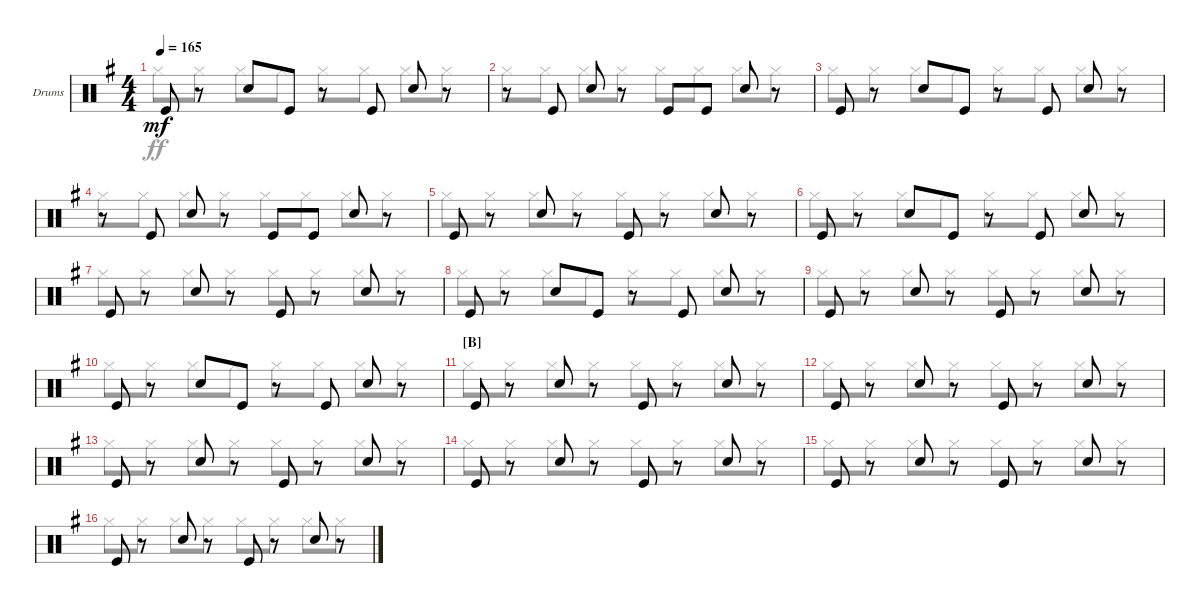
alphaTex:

\defaultSystemsLayout 4
\bracketExtendMode groupsimilarinstruments
\firstSystemTrackNameOrientation horizontal
\otherSystemsTrackNameOrientation horizontal
\track ("Fabrizio Moretti" "Drums") {instrument percussion}
\staff {score}
\articulation defaults
\voice
\ts (4 4)
\tempo 165
\clef neutral
\ks g "Kick (hit)".8{dy mf}
r.8 "Snare (hit) 2".8 "Kick (hit)".8 r.8 "Kick (hit)".8 "Snare (hit) 2".8 r.8 |
r.8 "Kick (hit)".8 "Snare (hit) 2".8 r.8 "Kick (hit)".8 "Kick (hit)".8 "Snare (hit) 2".8 r.8 |
"Kick (hit)".8 r.8 "Snare (hit) 2".8 "Kick (hit)".8 r.8 "Kick (hit)".8 "Snare (hit) 2".8 r.8 |
r.8 "Kick (hit)".8 "Snare (hit) 2".8 r.8 "Kick (hit)".8 "Kick (hit)".8 "Snare (hit) 2".8 r.8 |
"Kick (hit)".8 r.8 "Snare (hit) 2".8 r.8 "Kick (hit)".8 r.8 "Snare (hit) 2".8 r.8 |
"Kick (hit)".8 r.8 "Snare (hit) 2".8 "Kick (hit)".8 r.8 "Kick (hit)".8 "Snare (hit) 2".8 r.8 |
"Kick (hit)".8 r.8 "Snare (hit) 2".8 r.8 "Kick (hit)".8 r.8 "Snare (hit) 2".8 r.8 |
"Kick (hit)".8 r.8 "Snare (hit) 2".8 "Kick (hit)".8 r.8 "Kick (hit)".8 "Snare (hit) 2".8 r.8 |
"Kick (hit)".8 r.8 "Snare (hit) 2".8 r.8 "Kick (hit)".8 r.8 "Snare (hit) 2".8 r.8 |
"Kick (hit)".8 r.8 "Snare (hit) 2".8 "Kick (hit)".8 r.8 "Kick (hit)".8 "Snare (hit) 2".8 r.8 |
\section ("B" "")
"Kick (hit)".8 r.8 "Snare (hit) 2".8 r.8 "Kick (hit)".8 r.8 "Snare (hit) 2".8 r.8 |
"Kick (hit)".8 r.8 "Snare (hit) 2".8 r.8 "Kick (hit)".8 r.8 "Snare (hit) 2".8 r.8 |
"Kick (hit)".8 r.8 "Snare (hit) 2".8 r.8 "Kick (hit)".8 r.8 "Snare (hit) 2".8 r.8 |
"Kick (hit)".8 r.8 "Snare (hit) 2".8 r.8 "Kick (hit)".8 r.8 "Snare (hit) 2".8 r.8 |
"Kick (hit)".8 r.8 "Snare (hit) 2".8 r.8 "Kick (hit)".8 r.8 "Snare (hit) 2".8 r.8 |
"Kick (hit)".8 r.8 "Snare (hit) 2".8 r.8 "Kick (hit)".8 r.8 "Snare (hit) 2".8 r.8
\voice
\clef neutral
\ottava regular
\simile none
\ks g "Hi-Hat (closed)".8{dy ff} "Hi-Hat (closed)".8 "Hi-Hat (closed)".8 "Hi-Hat (closed)".8 "Hi-Hat (closed)".8 "Hi-Hat (closed)".8 "Hi-Hat (closed)".8 "Hi-Hat (closed)".8
|
"Hi-Hat (closed)".8 "Hi-Hat (closed)".8 "Hi-Hat (closed)".8 "Hi-Hat (closed)".8 "Hi-Hat (closed)".8 "Hi-Hat (closed)".8 "Hi-Hat (closed)".8 "Hi-Hat (closed)".8 |
"Hi-Hat (closed)".8 "Hi-Hat (closed)".8 "Hi-Hat (closed)".8 "Hi-Hat (closed)".8 "Hi-Hat (closed)".8 "Hi-Hat (closed)".8 "Hi-Hat (closed)".8 "Hi-Hat (closed)".8 |
"Hi-Hat (closed)".8 "Hi-Hat (closed)".8 "Hi-Hat (closed)".8 "Hi-Hat (closed)".8 "Hi-Hat (closed)".8 "Hi-Hat (closed)".8 "Hi-Hat (closed)".8 "Hi-Hat (closed)".8 |
"Hi-Hat (closed)".8 "Hi-Hat (closed)".8 "Hi-Hat (closed)".8 "Hi-Hat (closed)".8 "Hi-Hat (closed)".8 "Hi-Hat (closed)".8 "Hi-Hat (closed)".8 "Hi-Hat (closed)".8 |
"Hi-Hat (closed)".8 "Hi-Hat (closed)".8 "Hi-Hat (closed)".8 "Hi-Hat (closed)".8 "Hi-Hat (closed)".8 "Hi-Hat (closed)".8 "Hi-Hat (closed)".8 "Hi-Hat (closed)".8 |
"Hi-Hat (closed)".8 "Hi-Hat (closed)".8 "Hi-Hat (closed)".8 "Hi-Hat (closed)".8 "Hi-Hat (closed)".8 "Hi-Hat (closed)".8 "Hi-Hat (closed)".8 "Hi-Hat (closed)".8 |
"Hi-Hat (closed)".8 "Hi-Hat (closed)".8 "Hi-Hat (closed)".8 "Hi-Hat (closed)".8 "Hi-Hat (closed)".8 "Hi-Hat (closed)".8 "Hi-Hat (closed)".8 "Hi-Hat (closed)".8 |
"Hi-Hat (closed)".8 "Hi-Hat (closed)".8 "Hi-Hat (closed)".8 "Hi-Hat (closed)".8 "Hi-Hat (closed)".8 "Hi-Hat (closed)".8 "Hi-Hat (closed)".8 "Hi-Hat (closed)".8 |
"Hi-Hat (closed)".8 "Hi-Hat (closed)".8 "Hi-Hat (closed)".8 "Hi-Hat (closed)".8 "Hi-Hat (closed)".8 "Hi-Hat (closed)".8 "Hi-Hat (closed)".8 "Hi-Hat (closed)".8 |
"Hi-Hat (closed)".8 "Hi-Hat (closed)".8 "Hi-Hat (closed)".8 "Hi-Hat (closed)".8 "Hi-Hat (closed)".8 "Hi-Hat (closed)".8 "Hi-Hat (closed)".8 "Hi-Hat (closed)".8 |
"Hi-Hat (closed)".8 "Hi-Hat (closed)".8 "Hi-Hat (closed)".8 "Hi-Hat (closed)".8 "Hi-Hat (closed)".8 "Hi-Hat (closed)".8 "Hi-Hat (closed)".8 "Hi-Hat (closed)".8 |
"Hi-Hat (closed)".8 "Hi-Hat (closed)".8 "Hi-Hat (closed)".8 "Hi-Hat (closed)".8 "Hi-Hat (closed)".8 "Hi-Hat (closed)".8 "Hi-Hat (closed)".8 "Hi-Hat (closed)".8 |
"Hi-Hat (closed)".8 "Hi-Hat (closed)".8 "Hi-Hat (closed)".8 "Hi-Hat (closed)".8 "Hi-Hat (closed)".8 "Hi-Hat (closed)".8 "Hi-Hat (closed)".8 "Hi-Hat (closed)".8 |
"Hi-Hat (closed)".8 "Hi-Hat (closed)".8 "Hi-Hat (closed)".8 "Hi-Hat (closed)".8 "Hi-Hat (closed)".8 "Hi-Hat (closed)".8 "Hi-Hat (closed)".8 "Hi-Hat (closed)".8 |
"Hi-Hat (closed)".8 "Hi-Hat (closed)".8 "Hi-Hat (closed)".8 "Hi-Hat (closed)".8 "Hi-Hat (closed)".8 "Hi-Hat (closed)".8 "Hi-Hat (closed)".8 "Hi-Hat (closed)".8
